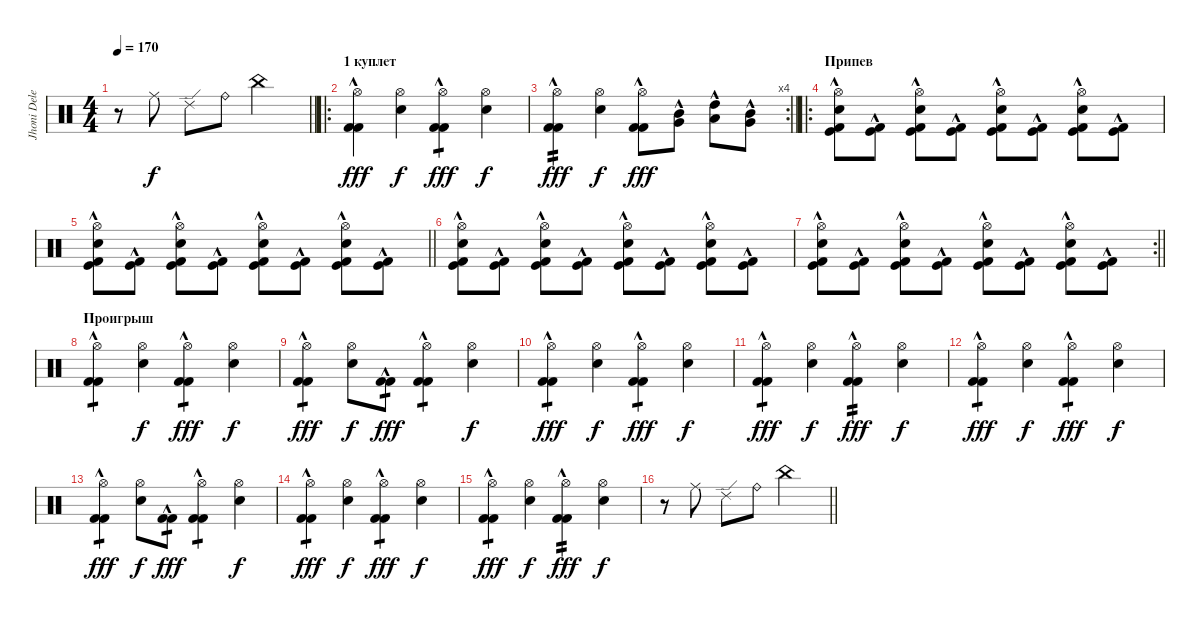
\track ("Jhoni Delenger" "Jhoni Dele") {instrument percussion}
\staff {score}
\articulation defaults
\ts (4 4)
\tempo 170
\clef neutral
\barLineRight lightlight
\ks c
r.8{dy f} "Ride (middle)".8 "Ride (edge) 2".8 "Ride (bell)".8 "China (hit)".2 |
\ro
\section ("" "1 куплет")
("Hi-Hat (open)" "Kick (hit) 2"{hac} "Kick (hit) 2").4{dy fff} ("Hi-Hat (open)" "Snare (hit) 2").4{dy f} ("Hi-Hat (open)" "Kick (hit) 2"{hac} "Kick (hit) 2").4{tp 1 dy fff} ("Hi-Hat (open)" "Snare (hit) 2").4{dy f} |
\rc 4
\barLineRight lightlight
("Hi-Hat (open)" "Kick (hit) 2"{hac} "Kick (hit) 2").4{tp 2 dy fff} ("Hi-Hat (open)" "Snare (hit) 2").4{dy f} ("Hi-Hat (open)" "Kick (hit) 2"{hac} "Kick (hit) 2").8{dy fff} ("Mid Tom (hit)"{hac} "Very Low Tom (hit)"{hac}).8 ("High Tom (hit)"{hac} "Low Tom (hit)"{hac}).8 ("Mid Tom (hit)"{hac} "Very Low Tom (hit)"{hac}).8 |
\ro
\section ("" "Припев")
("Hi-Hat (open)" "Snare (hit) 2" "Kick (hit) 2"{hac} "Kick (hit)").8 ("Kick (hit) 2"{hac} "Kick (hit)").8 ("Hi-Hat (open)" "Snare (hit) 2" "Kick (hit) 2"{hac} "Kick (hit)").8 ("Kick (hit) 2"{hac} "Kick (hit)").8 ("Hi-Hat (open)" "Snare (hit) 2" "Kick (hit) 2"{hac} "Kick (hit)").8 ("Kick (hit) 2"{hac} "Kick (hit)").8 ("Hi-Hat (open)" "Snare (hit) 2" "Kick (hit) 2"{hac} "Kick (hit)").8 ("Kick (hit) 2"{hac} "Kick (hit)").8 |
\barLineRight lightlight
("Hi-Hat (open)" "Snare (hit) 2" "Kick (hit) 2"{hac} "Kick (hit)").8 ("Kick (hit) 2"{hac} "Kick (hit)").8 ("Hi-Hat (open)" "Snare (hit) 2" "Kick (hit) 2"{hac} "Kick (hit)").8 ("Kick (hit) 2"{hac} "Kick (hit)").8 ("Hi-Hat (open)" "Snare (hit) 2" "Kick (hit) 2"{hac} "Kick (hit)").8 ("Kick (hit) 2"{hac} "Kick (hit)").8 ("Hi-Hat (open)" "Snare (hit) 2" "Kick (hit) 2"{hac} "Kick (hit)").8 ("Kick (hit) 2"{hac} "Kick (hit)").8 |
("Hi-Hat (open)" "Snare (hit) 2" "Kick (hit) 2"{hac} "Kick (hit)").8 ("Kick (hit) 2"{hac} "Kick (hit)").8 ("Hi-Hat (open)" "Snare (hit) 2" "Kick (hit) 2"{hac} "Kick (hit)").8 ("Kick (hit) 2"{hac} "Kick (hit)").8 ("Hi-Hat (open)" "Snare (hit) 2" "Kick (hit) 2"{hac} "Kick (hit)").8 ("Kick (hit) 2"{hac} "Kick (hit)").8 ("Hi-Hat (open)" "Snare (hit) 2" "Kick (hit) 2"{hac} "Kick (hit)").8 ("Kick (hit) 2"{hac} "Kick (hit)").8 |
\rc 2
\barLineRight lightlight
("Hi-Hat (open)" "Snare (hit) 2" "Kick (hit) 2"{hac} "Kick (hit)").8 ("Kick (hit) 2"{hac} "Kick (hit)").8 ("Hi-Hat (open)" "Snare (hit) 2" "Kick (hit) 2"{hac} "Kick (hit)").8 ("Kick (hit) 2"{hac} "Kick (hit)").8 ("Hi-Hat (open)" "Snare (hit) 2" "Kick (hit) 2"{hac} "Kick (hit)").8 ("Kick (hit) 2"{hac} "Kick (hit)").8 ("Hi-Hat (open)" "Snare (hit) 2" "Kick (hit) 2"{hac} "Kick (hit)").8 ("Kick (hit) 2"{hac} "Kick (hit)").8 |
\section ("" "Проигрыш")
("Hi-Hat (open)" "Kick (hit) 2"{hac} "Kick (hit) 2").4{tp 1} ("Hi-Hat (open)" "Snare (hit) 2").4{dy f} ("Hi-Hat (open)" "Kick (hit) 2"{hac} "Kick (hit) 2").4{tp 1 dy fff} ("Hi-Hat (open)" "Snare (hit) 2").4{dy f} |
("Hi-Hat (open)" "Kick (hit) 2"{hac} "Kick (hit) 2").4{tp 1 dy fff} ("Hi-Hat (open)" "Snare (hit) 2").8{dy f} ("Kick (hit) 2"{hac} "Kick (hit) 2").8{tp 1 dy fff} ("Hi-Hat (open)" "Kick (hit) 2"{hac} "Kick (hit) 2").4{tp 1} ("Hi-Hat (open)" "Snare (hit) 2").4{dy f} |
("Hi-Hat (open)" "Kick (hit) 2"{hac} "Kick (hit) 2").4{tp 1 dy fff} ("Hi-Hat (open)" "Snare (hit) 2").4{dy f} ("Hi-Hat (open)" "Kick (hit) 2"{hac} "Kick (hit) 2").4{tp 1 dy fff} ("Hi-Hat (open)" "Snare (hit) 2").4{dy f} |
("Hi-Hat (open)" "Kick (hit) 2"{hac} "Kick (hit) 2").4{tp 1 dy fff} ("Hi-Hat (open)" "Snare (hit) 2").4{dy f} ("Hi-Hat (open)" "Kick (hit) 2"{hac} "Kick (hit) 2").4{tp 2 dy fff} ("Hi-Hat (open)" "Snare (hit) 2").4{dy f} |
("Hi-Hat (open)" "Kick (hit) 2"{hac} "Kick (hit) 2").4{tp 1 dy fff} ("Hi-Hat (open)" "Snare (hit) 2").4{dy f} ("Hi-Hat (open)" "Kick (hit) 2"{hac} "Kick (hit) 2").4{tp 1 dy fff} ("Hi-Hat (open)" "Snare (hit) 2").4{dy f} |
("Hi-Hat (open)" "Kick (hit) 2"{hac} "Kick (hit) 2").4{tp 1 dy fff} ("Hi-Hat (open)" "Snare (hit) 2").8{dy f} ("Kick (hit) 2"{hac} "Kick (hit) 2").8{tp 1 dy fff} ("Hi-Hat (open)" "Kick (hit) 2"{hac} "Kick (hit) 2").4{tp 1} ("Hi-Hat (open)" "Snare (hit) 2").4{dy f} |
("Hi-Hat (open)" "Kick (hit) 2"{hac} "Kick (hit) 2").4{tp 1 dy fff} ("Hi-Hat (open)" "Snare (hit) 2").4{dy f} ("Hi-Hat (open)" "Kick (hit) 2"{hac} "Kick (hit) 2").4{tp 1 dy fff} ("Hi-Hat (open)" "Snare (hit) 2").4{dy f} |
("Hi-Hat (open)" "Kick (hit) 2"{hac} "Kick (hit) 2").4{tp 1 dy fff} ("Hi-Hat (open)" "Snare (hit) 2").4{dy f} ("Hi-Hat (open)" "Kick (hit) 2"{hac} "Kick (hit) 2").4{tp 2 dy fff} ("Hi-Hat (open)" "Snare (hit) 2").4{dy f} |
\barLineRight lightlight
r.8 "Ride (middle)".8 "Ride (edge) 2".8 "Ride (bell)".8 "China (hit)".2
